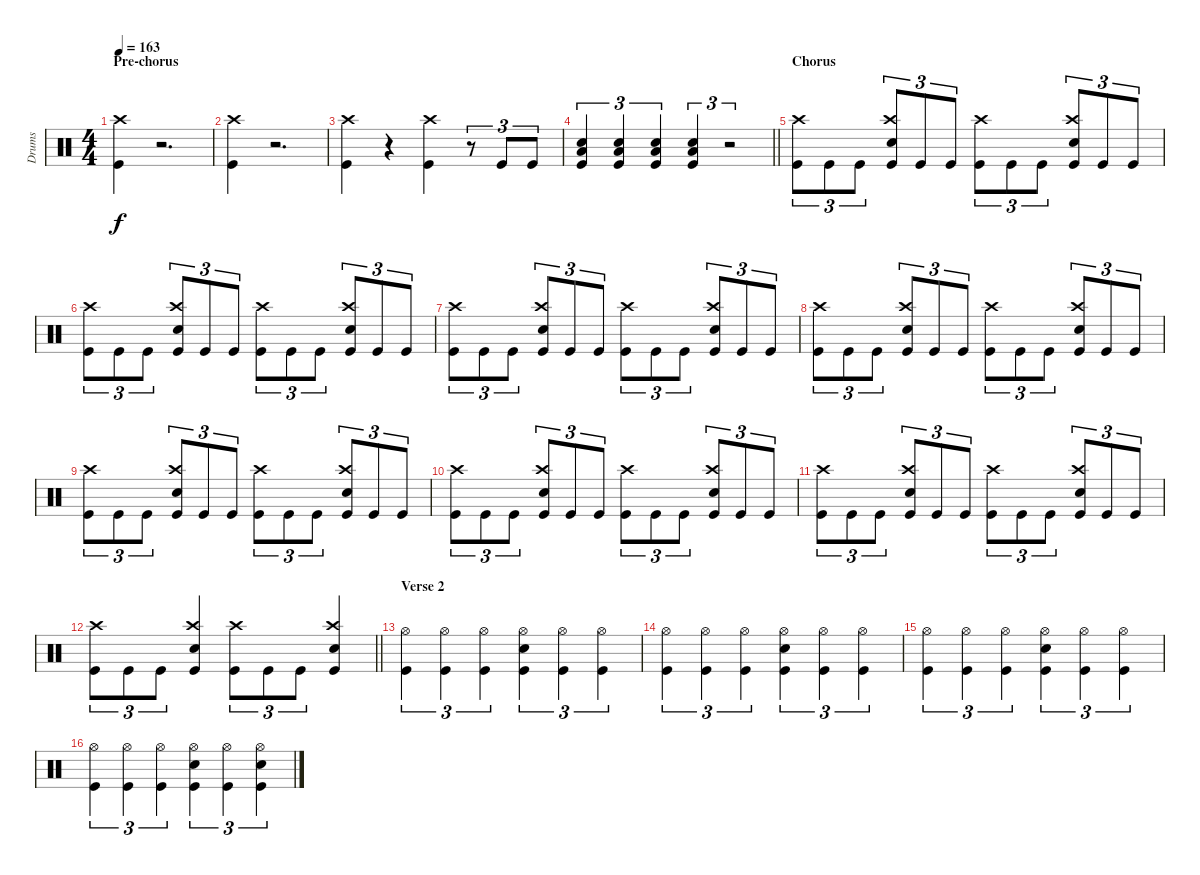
\track ("Drums" "Drums") {instrument percussion}
\staff {score}
\articulation defaults
\ts (4 4)
\section ("" "Pre-chorus")
\tempo 163
\clef neutral
\ks c
("Kick (hit)" "Crash high (hit)").4{dy f} r.2{d} |
("Crash high (hit)" "Kick (hit)").4 r.2{d} |
("Kick (hit)" "Crash high (hit)").4 r.4 ("Kick (hit)" "Crash high (hit)").4 r.8{tu (3 2)} "Kick (hit)".8{tu (3 2)} "Kick (hit)".8{tu (3 2)} |
\barLineRight lightlight
("Kick (hit)" "Snare (hit) 2" "Low Floor Tom (hit)").4{tu (3 2)} ("Kick (hit)" "Snare (hit) 2" "Low Floor Tom (hit)").4{tu (3 2)} ("Kick (hit)" "Snare (hit) 2" "Low Floor Tom (hit)").4{tu (3 2)} ("Kick (hit)" "Snare (hit) 2" "Low Floor Tom (hit)").4{tu (3 2)} r.2{tu (3 2)} |
\section ("" "Chorus")
("Kick (hit)" "Crash high (hit)").8{tu (3 2)} "Kick (hit)".8{tu (3 2)} "Kick (hit)".8{tu (3 2)} ("Kick (hit)" "Snare (hit) 2" "Crash high (hit)").8{tu (3 2)} "Kick (hit)".8{tu (3 2)} "Kick (hit)".8{tu (3 2)} ("Kick (hit)" "Crash high (hit)").8{tu (3 2)} "Kick (hit)".8{tu (3 2)} "Kick (hit)".8{tu (3 2)} ("Kick (hit)" "Snare (hit) 2" "Crash high (hit)").8{tu (3 2)} "Kick (hit)".8{tu (3 2)} "Kick (hit)".8{tu (3 2)} |
("Kick (hit)" "Crash high (hit)").8{tu (3 2)} "Kick (hit)".8{tu (3 2)} "Kick (hit)".8{tu (3 2)} ("Kick (hit)" "Snare (hit) 2" "Crash high (hit)").8{tu (3 2)} "Kick (hit)".8{tu (3 2)} "Kick (hit)".8{tu (3 2)} ("Kick (hit)" "Crash high (hit)").8{tu (3 2)} "Kick (hit)".8{tu (3 2)} "Kick (hit)".8{tu (3 2)} ("Kick (hit)" "Snare (hit) 2" "Crash high (hit)").8{tu (3 2)} "Kick (hit)".8{tu (3 2)} "Kick (hit)".8{tu (3 2)} |
("Kick (hit)" "Crash high (hit)").8{tu (3 2)} "Kick (hit)".8{tu (3 2)} "Kick (hit)".8{tu (3 2)} ("Kick (hit)" "Snare (hit) 2" "Crash high (hit)").8{tu (3 2)} "Kick (hit)".8{tu (3 2)} "Kick (hit)".8{tu (3 2)} ("Kick (hit)" "Crash high (hit)").8{tu (3 2)} "Kick (hit)".8{tu (3 2)} "Kick (hit)".8{tu (3 2)} ("Kick (hit)" "Snare (hit) 2" "Crash high (hit)").8{tu (3 2)} "Kick (hit)".8{tu (3 2)} "Kick (hit)".8{tu (3 2)} |
("Kick (hit)" "Crash high (hit)").8{tu (3 2)} "Kick (hit)".8{tu (3 2)} "Kick (hit)".8{tu (3 2)} ("Kick (hit)" "Snare (hit) 2" "Crash high (hit)").8{tu (3 2)} "Kick (hit)".8{tu (3 2)} "Kick (hit)".8{tu (3 2)} ("Kick (hit)" "Crash high (hit)").8{tu (3 2)} "Kick (hit)".8{tu (3 2)} "Kick (hit)".8{tu (3 2)} ("Kick (hit)" "Snare (hit) 2" "Crash high (hit)").8{tu (3 2)} "Kick (hit)".8{tu (3 2)} "Kick (hit)".8{tu (3 2)} |
("Kick (hit)" "Crash high (hit)").8{tu (3 2)} "Kick (hit)".8{tu (3 2)} "Kick (hit)".8{tu (3 2)} ("Kick (hit)" "Snare (hit) 2" "Crash high (hit)").8{tu (3 2)} "Kick (hit)".8{tu (3 2)} "Kick (hit)".8{tu (3 2)} ("Kick (hit)" "Crash high (hit)").8{tu (3 2)} "Kick (hit)".8{tu (3 2)} "Kick (hit)".8{tu (3 2)} ("Kick (hit)" "Snare (hit) 2" "Crash high (hit)").8{tu (3 2)} "Kick (hit)".8{tu (3 2)} "Kick (hit)".8{tu (3 2)} |
("Kick (hit)" "Crash high (hit)").8{tu (3 2)} "Kick (hit)".8{tu (3 2)} "Kick (hit)".8{tu (3 2)} ("Kick (hit)" "Snare (hit) 2" "Crash high (hit)").8{tu (3 2)} "Kick (hit)".8{tu (3 2)} "Kick (hit)".8{tu (3 2)} ("Kick (hit)" "Crash high (hit)").8{tu (3 2)} "Kick (hit)".8{tu (3 2)} "Kick (hit)".8{tu (3 2)} ("Kick (hit)" "Snare (hit) 2" "Crash high (hit)").8{tu (3 2)} "Kick (hit)".8{tu (3 2)} "Kick (hit)".8{tu (3 2)} |
("Kick (hit)" "Crash high (hit)").8{tu (3 2)} "Kick (hit)".8{tu (3 2)} "Kick (hit)".8{tu (3 2)} ("Kick (hit)" "Snare (hit) 2" "Crash high (hit)").8{tu (3 2)} "Kick (hit)".8{tu (3 2)} "Kick (hit)".8{tu (3 2)} ("Kick (hit)" "Crash high (hit)").8{tu (3 2)} "Kick (hit)".8{tu (3 2)} "Kick (hit)".8{tu (3 2)} ("Kick (hit)" "Snare (hit) 2" "Crash high (hit)").8{tu (3 2)} "Kick (hit)".8{tu (3 2)} "Kick (hit)".8{tu (3 2)} |
\barLineRight lightlight
("Kick (hit)" "Crash high (hit)").8{tu (3 2)} "Kick (hit)".8{tu (3 2)} "Kick (hit)".8{tu (3 2)} ("Kick (hit)" "Snare (hit) 2" "Crash high (hit)").4 ("Kick (hit)" "Crash high (hit)").8{tu (3 2)} "Kick (hit)".8{tu (3 2)} "Kick (hit)".8{tu (3 2)} ("Kick (hit)" "Snare (hit) 2" "Crash high (hit)").4 |
\section ("" "Verse 2")
("Kick (hit)" "Hi-Hat (open)").4{tu (3 2)} ("Kick (hit)" "Hi-Hat (open)").4{tu (3 2)} ("Kick (hit)" "Hi-Hat (open)").4{tu (3 2)} ("Snare (hit) 2" "Hi-Hat (open)" "Kick (hit)").4{tu (3 2)} ("Kick (hit)" "Hi-Hat (open)").4{tu (3 2)} ("Kick (hit)" "Hi-Hat (open)").4{tu (3 2)} |
("Kick (hit)" "Hi-Hat (open)").4{tu (3 2)} ("Kick (hit)" "Hi-Hat (open)").4{tu (3 2)} ("Kick (hit)" "Hi-Hat (open)").4{tu (3 2)} ("Snare (hit) 2" "Hi-Hat (open)" "Kick (hit)").4{tu (3 2)} ("Kick (hit)" "Hi-Hat (open)").4{tu (3 2)} ("Kick (hit)" "Hi-Hat (open)").4{tu (3 2)} |
("Kick (hit)" "Hi-Hat (open)").4{tu (3 2)} ("Kick (hit)" "Hi-Hat (open)").4{tu (3 2)} ("Kick (hit)" "Hi-Hat (open)").4{tu (3 2)} ("Snare (hit) 2" "Hi-Hat (open)" "Kick (hit)").4{tu (3 2)} ("Kick (hit)" "Hi-Hat (open)").4{tu (3 2)} ("Kick (hit)" "Hi-Hat (open)").4{tu (3 2)} |
("Kick (hit)" "Hi-Hat (open)").4{tu (3 2)} ("Kick (hit)" "Hi-Hat (open)").4{tu (3 2)} ("Kick (hit)" "Hi-Hat (open)").4{tu (3 2)} ("Snare (hit) 2" "Hi-Hat (open)" "Kick (hit)").4{tu (3 2)} ("Kick (hit)" "Hi-Hat (open)").4{tu (3 2)} ("Kick (hit)" "Hi-Hat (open)" "Snare (hit) 2").4{tu (3 2)}
